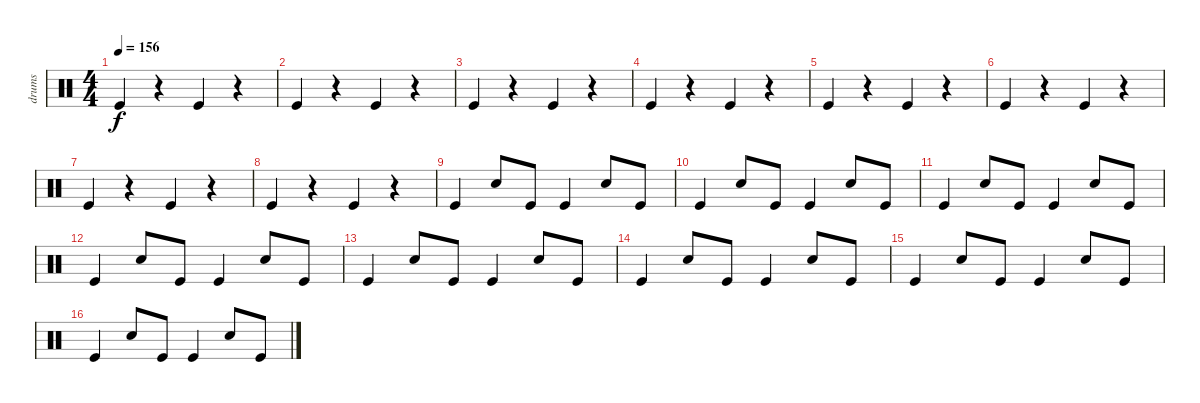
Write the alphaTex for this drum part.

\track ("drums" "drums") {instrument percussion}
\staff {score}
\articulation defaults
\ts (4 4)
\tempo 156
\clef neutral
\ks c "Kick (hit)".4{dy f}
r.4 "Kick (hit)".4 r.4 |
"Kick (hit)".4 r.4 "Kick (hit)".4 r.4 |
"Kick (hit)".4 r.4 "Kick (hit)".4 r.4 |
"Kick (hit)".4 r.4 "Kick (hit)".4 r.4 |
"Kick (hit)".4 r.4 "Kick (hit)".4 r.4 |
"Kick (hit)".4 r.4 "Kick (hit)".4 r.4 |
"Kick (hit)".4 r.4 "Kick (hit)".4 r.4 |
"Kick (hit)".4 r.4 "Kick (hit)".4 r.4 |
"Kick (hit)".4 "Snare (hit) 2".8 "Kick (hit)".8 "Kick (hit)".4 "Snare (hit) 2".8 "Kick (hit)".8 |
"Kick (hit)".4 "Snare (hit) 2".8 "Kick (hit)".8 "Kick (hit)".4 "Snare (hit) 2".8 "Kick (hit)".8 |
"Kick (hit)".4 "Snare (hit) 2".8 "Kick (hit)".8 "Kick (hit)".4 "Snare (hit) 2".8 "Kick (hit)".8 |
"Kick (hit)".4 "Snare (hit) 2".8 "Kick (hit)".8 "Kick (hit)".4 "Electric Snare (hit)".8 "Kick (hit)".8 |
"Kick (hit)".4 "Snare (hit) 2".8 "Kick (hit)".8 "Kick (hit)".4 "Snare (hit) 2".8 "Kick (hit)".8 |
"Kick (hit)".4 "Snare (hit) 2".8 "Kick (hit)".8 "Kick (hit)".4 "Snare (hit) 2".8 "Kick (hit)".8 |
"Kick (hit)".4 "Snare (hit) 2".8 "Kick (hit)".8 "Kick (hit)".4 "Snare (hit) 2".8 "Kick (hit)".8 |
"Kick (hit)".4 "Snare (hit) 2".8 "Kick (hit)".8 "Kick (hit)".4 "Electric Snare (hit)".8 "Kick (hit)".8
